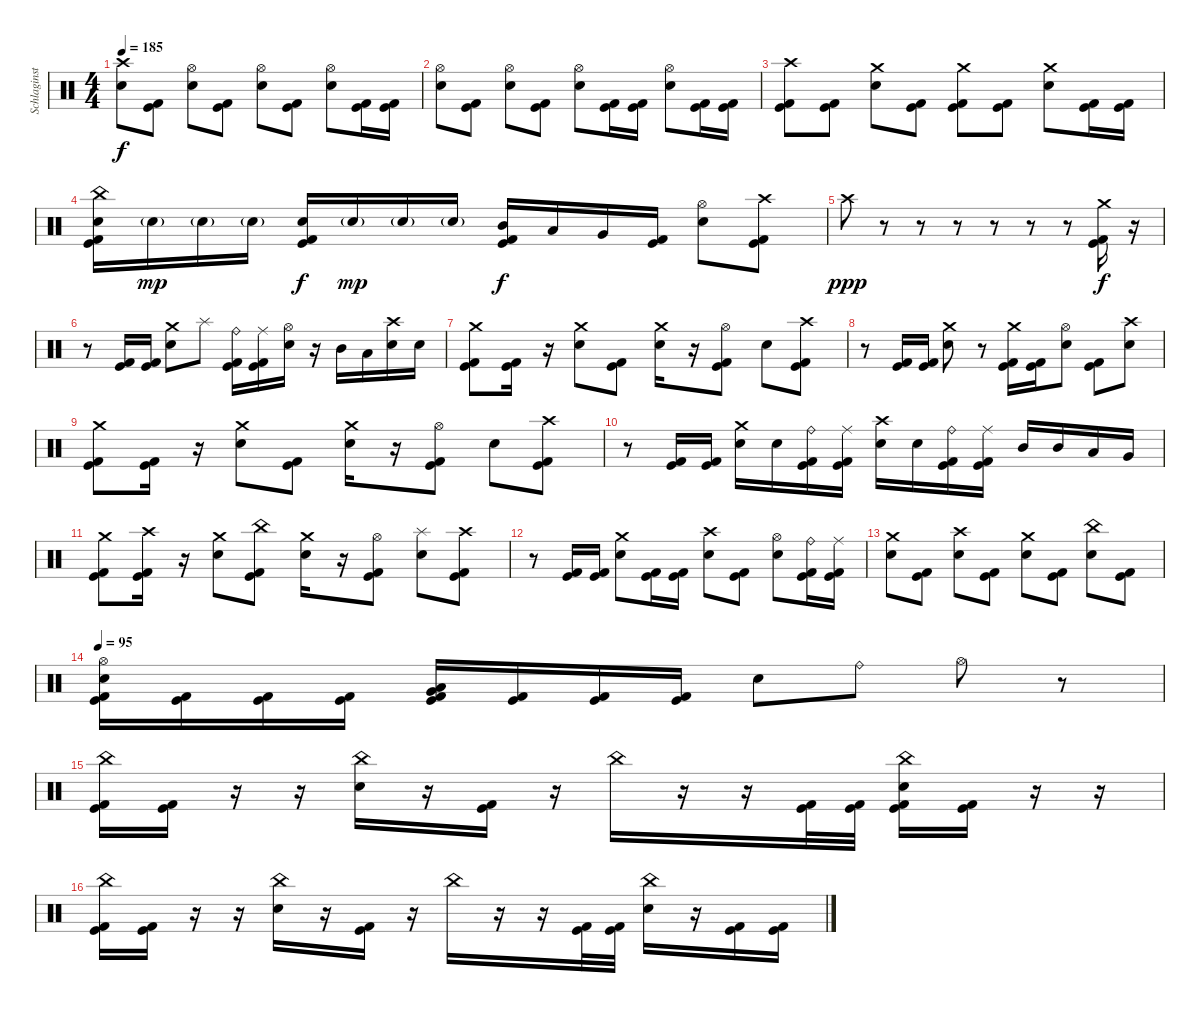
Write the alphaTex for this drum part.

\track ("Schlaginstrumente - Auswahl" "Schlaginst") {instrument percussion}
\staff {score}
\articulation defaults
\ts (4 4)
\tempo 185
\clef neutral
\ks c
("Crash high (hit)" "Electric Snare (hit)").8{dy f} ("Kick (hit)" "Kick (hit) 2").8 ("Hi-Hat (open)" "Electric Snare (hit)").8 ("Kick (hit)" "Kick (hit) 2").8 ("Hi-Hat (open)" "Electric Snare (hit)").8 ("Kick (hit)" "Kick (hit) 2").8 ("Hi-Hat (open)" "Electric Snare (hit)").8 ("Kick (hit)" "Kick (hit) 2").16 ("Kick (hit)" "Kick (hit) 2").16 |
("Hi-Hat (open)" "Electric Snare (hit)").8 ("Kick (hit)" "Kick (hit) 2").8 ("Hi-Hat (open)" "Electric Snare (hit)").8 ("Kick (hit)" "Kick (hit) 2").8 ("Hi-Hat (open)" "Electric Snare (hit)").8 ("Kick (hit)" "Kick (hit) 2").16 ("Kick (hit)" "Kick (hit) 2").16 ("Hi-Hat (open)" "Electric Snare (hit)").8 ("Kick (hit)" "Kick (hit) 2").16 ("Kick (hit)" "Kick (hit) 2").16 |
("Crash high (hit)" "Kick (hit)" "Kick (hit) 2").8 ("Kick (hit)" "Kick (hit) 2").8 ("Crash medium (hit)" "Electric Snare (hit)").8 ("Kick (hit)" "Kick (hit) 2").8 ("Crash medium (hit)" "Kick (hit)" "Kick (hit) 2").8 ("Kick (hit)" "Kick (hit) 2").8 ("Crash medium (hit)" "Electric Snare (hit)").8 ("Kick (hit)" "Kick (hit) 2").16 ("Kick (hit)" "Kick (hit) 2").16 |
("China (hit)" "Electric Snare (hit)" "Kick (hit)" "Kick (hit) 2").16 "Electric Snare (hit)"{g}.16{dy mp} "Electric Snare (hit)"{g}.16 "Electric Snare (hit)"{g}.16 ("Electric Snare (hit)" "Kick (hit)" "Kick (hit) 2").16{dy f} "Electric Snare (hit)"{g}.16{dy mp} "Electric Snare (hit)"{g}.16 "Electric Snare (hit)"{g}.16 ("Mid Tom (hit)" "Kick (hit)" "Kick (hit) 2").16{dy f} "Low Tom (hit)".16 "Very Low Tom (hit)".16 ("Kick (hit)" "Kick (hit) 2").16 ("Hi-Hat (open)" "Electric Snare (hit)").8 ("Crash high (hit)" "Kick (hit)" "Kick (hit) 2").8 |
"Crash high (hit)".8{dy ppp} r.8 r.8 r.8 r.8 r.8 r.8 ("Crash medium (hit)" "Kick (hit)" "Kick (hit) 2").16{dy f} r.16 |
r.8 ("Kick (hit)" "Kick (hit) 2").16 ("Kick (hit)" "Kick (hit) 2").16 ("Crash medium (hit)" "Electric Snare (hit)").8 "Splash (hit)".8 ("Ride (bell)" "Kick (hit)" "Kick (hit) 2").16 ("Ride (middle)" "Kick (hit)" "Kick (hit) 2").16 ("Hi-Hat (open)" "Electric Snare (hit)").16 r.16 "Mid Tom (hit)".16 "Low Tom (hit)".16 ("Crash high (hit)" "Electric Snare (hit)").16 "Electric Snare (hit)".16 |
("Crash medium (hit)" "Kick (hit)" "Kick (hit) 2").8 ("Kick (hit)" "Kick (hit) 2").16 r.16 ("Crash medium (hit)" "Electric Snare (hit)").8 ("Kick (hit)" "Kick (hit) 2").8 ("Crash medium (hit)" "Electric Snare (hit)").16 r.16 ("Hi-Hat (open)" "Kick (hit)" "Kick (hit) 2").8 "Electric Snare (hit)".8 ("Crash high (hit)" "Kick (hit)" "Kick (hit) 2").8 |
r.8 ("Kick (hit)" "Kick (hit) 2").16 ("Kick (hit)" "Kick (hit) 2").16 ("Crash medium (hit)" "Electric Snare (hit)").8 r.8 ("Crash medium (hit)" "Kick (hit)" "Kick (hit) 2").16 ("Kick (hit)" "Kick (hit) 2").16 ("Hi-Hat (open)" "Electric Snare (hit)").8 ("Kick (hit)" "Kick (hit) 2").8 ("Crash high (hit)" "Electric Snare (hit)").8 |
("Crash medium (hit)" "Kick (hit)" "Kick (hit) 2").8 ("Kick (hit)" "Kick (hit) 2").16 r.16 ("Crash medium (hit)" "Electric Snare (hit)").8 ("Kick (hit)" "Kick (hit) 2").8 ("Crash medium (hit)" "Electric Snare (hit)").16 r.16 ("Hi-Hat (open)" "Kick (hit)" "Kick (hit) 2").8 "Electric Snare (hit)".8 ("Crash high (hit)" "Kick (hit)" "Kick (hit) 2").8 |
r.8 ("Kick (hit)" "Kick (hit) 2").16 ("Kick (hit)" "Kick (hit) 2").16 ("Crash medium (hit)" "Electric Snare (hit)").16 "Electric Snare (hit)".16 ("Ride (bell)" "Kick (hit)" "Kick (hit) 2").16 ("Ride (middle)" "Kick (hit)" "Kick (hit) 2").16 ("Crash high (hit)" "Electric Snare (hit)").16 "Electric Snare (hit)".16 ("Ride (bell)" "Kick (hit)" "Kick (hit) 2").16 ("Ride (middle)" "Kick (hit)" "Kick (hit) 2").16 "Mid Tom (hit)".16 "Mid Tom (hit)".16 "Low Tom (hit)".16 "Very Low Tom (hit)".16 |
("Crash medium (hit)" "Kick (hit)" "Kick (hit) 2").8 ("Crash high (hit)" "Kick (hit)" "Kick (hit) 2").16 r.16 ("Crash medium (hit)" "Electric Snare (hit)").8 ("China (hit)" "Kick (hit)" "Kick (hit) 2").8 ("Crash medium (hit)" "Electric Snare (hit)").16 r.16 ("Hi-Hat (open)" "Kick (hit)" "Kick (hit) 2").8 ("Splash (hit)" "Electric Snare (hit)").8 ("Crash high (hit)" "Kick (hit)" "Kick (hit) 2").8 |
r.8 ("Kick (hit)" "Kick (hit) 2").16 ("Kick (hit)" "Kick (hit) 2").16 ("Crash medium (hit)" "Electric Snare (hit)").8 ("Kick (hit)" "Kick (hit) 2").16 ("Kick (hit)" "Kick (hit) 2").16 ("Crash high (hit)" "Electric Snare (hit)").8 ("Kick (hit)" "Kick (hit) 2").8 ("Hi-Hat (open)" "Electric Snare (hit)").8 ("Ride (bell)" "Kick (hit)" "Kick (hit) 2").16 ("Ride (middle)" "Kick (hit)" "Kick (hit) 2").16 |
("Crash medium (hit)" "Electric Snare (hit)").8 ("Kick (hit)" "Kick (hit) 2").8 ("Crash high (hit)" "Electric Snare (hit)").8 ("Kick (hit)" "Kick (hit) 2").8 ("Crash medium (hit)" "Electric Snare (hit)").8 ("Kick (hit)" "Kick (hit) 2").8 ("China (hit)" "Electric Snare (hit)").8 ("Kick (hit)" "Kick (hit) 2").8 |
\tempo 95
("Hi-Hat (open)" "Electric Snare (hit)" "Kick (hit)" "Kick (hit) 2").16 ("Kick (hit)" "Kick (hit) 2").16 ("Kick (hit)" "Kick (hit) 2").16 ("Kick (hit)" "Kick (hit) 2").16 ("Low Floor Tom (hit)" "Very Low Tom (hit)" "Kick (hit)" "Kick (hit) 2").16 ("Kick (hit)" "Kick (hit) 2").16 ("Kick (hit)" "Kick (hit) 2").16 ("Kick (hit)" "Kick (hit) 2").16 "Electric Snare (hit)".8 "Ride (bell)".8 "Hi-Hat (open)".8 r.8 |
("China (hit)" "Kick (hit)" "Kick (hit) 2").16 ("Kick (hit)" "Kick (hit) 2").16 r.16 r.16 ("China (hit)" "Electric Snare (hit)").16 r.16 ("Kick (hit)" "Kick (hit) 2").16 r.16 "China (hit)".16 r.16 r.16 ("Kick (hit)" "Kick (hit) 2").32 ("Kick (hit)" "Kick (hit) 2").32 ("China (hit)" "Electric Snare (hit)" "Kick (hit)" "Kick (hit) 2").16 ("Kick (hit)" "Kick (hit) 2").16 r.16 r.16 |
("China (hit)" "Kick (hit)" "Kick (hit) 2").16 ("Kick (hit)" "Kick (hit) 2").16 r.16 r.16 ("China (hit)" "Electric Snare (hit)").16 r.16 ("Kick (hit)" "Kick (hit) 2").16 r.16 "China (hit)".16 r.16 r.16 ("Kick (hit)" "Kick (hit) 2").32 ("Kick (hit)" "Kick (hit) 2").32 ("China (hit)" "Electric Snare (hit)").16 r.16 ("Kick (hit)" "Kick (hit) 2").16 ("Kick (hit)" "Kick (hit) 2").16
